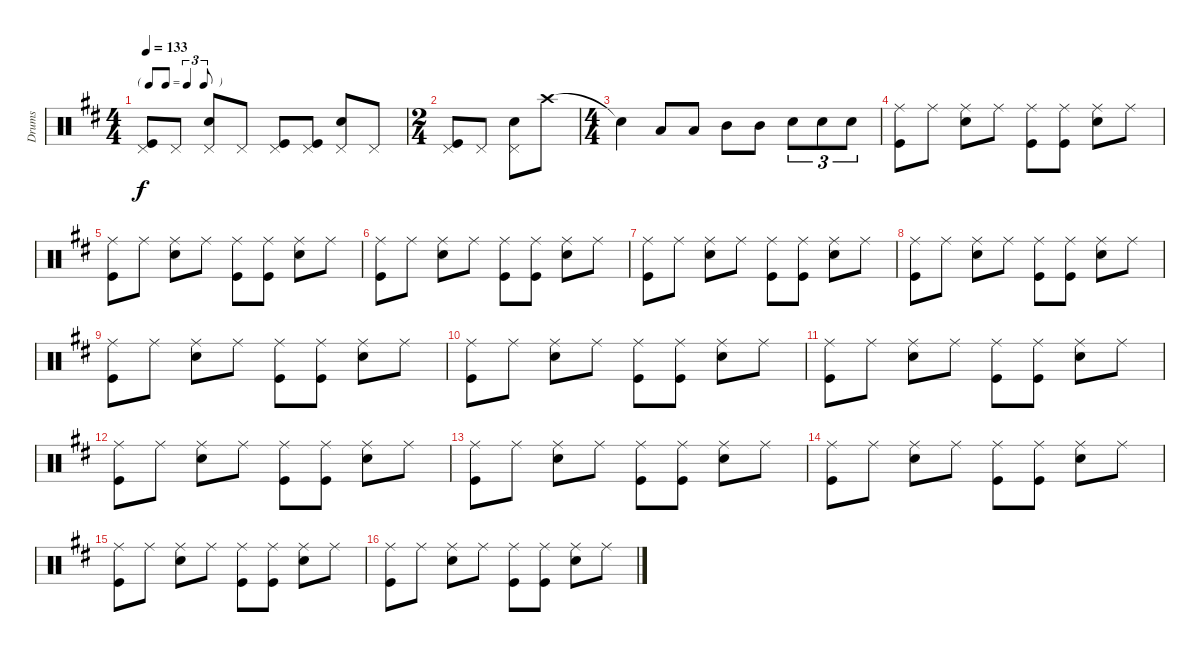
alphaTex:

\track ("Drums" "Drums") {instrument percussion}
\staff {score}
\articulation defaults
\ts (4 4)
\tf triplet8th
\tempo 133
\clef neutral
\ks d
("Pedal Hi-Hat (hit)" "Kick (hit)").8{dy f} "Pedal Hi-Hat (hit)".8 ("Pedal Hi-Hat (hit)" "Snare (hit) 2").8 "Pedal Hi-Hat (hit)".8 ("Pedal Hi-Hat (hit)" "Kick (hit)").8 ("Pedal Hi-Hat (hit)" "Kick (hit)").8 ("Pedal Hi-Hat (hit)" "Snare (hit) 2").8 "Pedal Hi-Hat (hit)".8 |
\ts (2 4)
("Pedal Hi-Hat (hit)" "Kick (hit)").8 "Pedal Hi-Hat (hit)".8 ("Pedal Hi-Hat (hit)" "Snare (hit) 2").8 "Crash high (hit)".8 |
\ts (4 4)
"Snare (hit)"{t}.4 "Low Tom (hit)".8 "Low Tom (hit)".8 "Mid Tom (hit)".8 "Mid Tom (hit)".8 "Snare (hit) 2".8{tu (3 2)} "Snare (hit) 2".8{tu (3 2)} "Snare (hit) 2".8{tu (3 2)} |
("Ride (middle)" "Kick (hit)").8 "Ride (middle)".8 ("Ride (middle)" "Snare (hit) 2").8 "Ride (middle)".8 ("Ride (middle)" "Kick (hit)").8 ("Ride (middle)" "Kick (hit)").8 ("Ride (middle)" "Snare (hit) 2").8 "Ride (middle)".8 |
("Ride (middle)" "Kick (hit)").8 "Ride (middle)".8 ("Ride (middle)" "Snare (hit) 2").8 "Ride (middle)".8 ("Ride (middle)" "Kick (hit)").8 ("Ride (middle)" "Kick (hit)").8 ("Ride (middle)" "Snare (hit) 2").8 "Ride (middle)".8 |
("Ride (middle)" "Kick (hit)").8 "Ride (middle)".8 ("Ride (middle)" "Snare (hit) 2").8 "Ride (middle)".8 ("Ride (middle)" "Kick (hit)").8 ("Ride (middle)" "Kick (hit)").8 ("Ride (middle)" "Snare (hit) 2").8 "Ride (middle)".8 |
("Ride (middle)" "Kick (hit)").8 "Ride (middle)".8 ("Ride (middle)" "Snare (hit) 2").8 "Ride (middle)".8 ("Ride (middle)" "Kick (hit)").8 ("Ride (middle)" "Kick (hit)").8 ("Ride (middle)" "Snare (hit) 2").8 "Ride (middle)".8 |
("Ride (middle)" "Kick (hit)").8 "Ride (middle)".8 ("Ride (middle)" "Snare (hit) 2").8 "Ride (middle)".8 ("Ride (middle)" "Kick (hit)").8 ("Ride (middle)" "Kick (hit)").8 ("Ride (middle)" "Snare (hit) 2").8 "Ride (middle)".8 |
("Ride (middle)" "Kick (hit)").8 "Ride (middle)".8 ("Ride (middle)" "Snare (hit) 2").8 "Ride (middle)".8 ("Ride (middle)" "Kick (hit)").8 ("Ride (middle)" "Kick (hit)").8 ("Ride (middle)" "Snare (hit) 2").8 "Ride (middle)".8 |
("Ride (middle)" "Kick (hit)").8 "Ride (middle)".8 ("Ride (middle)" "Snare (hit) 2").8 "Ride (middle)".8 ("Ride (middle)" "Kick (hit)").8 ("Ride (middle)" "Kick (hit)").8 ("Ride (middle)" "Snare (hit) 2").8 "Ride (middle)".8 |
("Ride (middle)" "Kick (hit)").8 "Ride (middle)".8 ("Ride (middle)" "Snare (hit) 2").8 "Ride (middle)".8 ("Ride (middle)" "Kick (hit)").8 ("Ride (middle)" "Kick (hit)").8 ("Ride (middle)" "Snare (hit) 2").8 "Ride (middle)".8 |
("Ride (middle)" "Kick (hit)").8 "Ride (middle)".8 ("Ride (middle)" "Snare (hit) 2").8 "Ride (middle)".8 ("Ride (middle)" "Kick (hit)").8 ("Ride (middle)" "Kick (hit)").8 ("Ride (middle)" "Snare (hit) 2").8 "Ride (middle)".8 |
("Ride (middle)" "Kick (hit)").8 "Ride (middle)".8 ("Ride (middle)" "Snare (hit) 2").8 "Ride (middle)".8 ("Ride (middle)" "Kick (hit)").8 ("Ride (middle)" "Kick (hit)").8 ("Ride (middle)" "Snare (hit) 2").8 "Ride (middle)".8 |
("Ride (middle)" "Kick (hit)").8 "Ride (middle)".8 ("Ride (middle)" "Snare (hit) 2").8 "Ride (middle)".8 ("Ride (middle)" "Kick (hit)").8 ("Ride (middle)" "Kick (hit)").8 ("Ride (middle)" "Snare (hit) 2").8 "Ride (middle)".8 |
("Ride (middle)" "Kick (hit)").8 "Ride (middle)".8 ("Ride (middle)" "Snare (hit) 2").8 "Ride (middle)".8 ("Ride (middle)" "Kick (hit)").8 ("Ride (middle)" "Kick (hit)").8 ("Ride (middle)" "Snare (hit) 2").8 "Ride (middle)".8 |
("Ride (middle)" "Kick (hit)").8 "Ride (middle)".8 ("Ride (middle)" "Snare (hit) 2").8 "Ride (middle)".8 ("Ride (middle)" "Kick (hit)").8 ("Ride (middle)" "Kick (hit)").8 ("Ride (middle)" "Snare (hit) 2").8 "Ride (middle)".8
